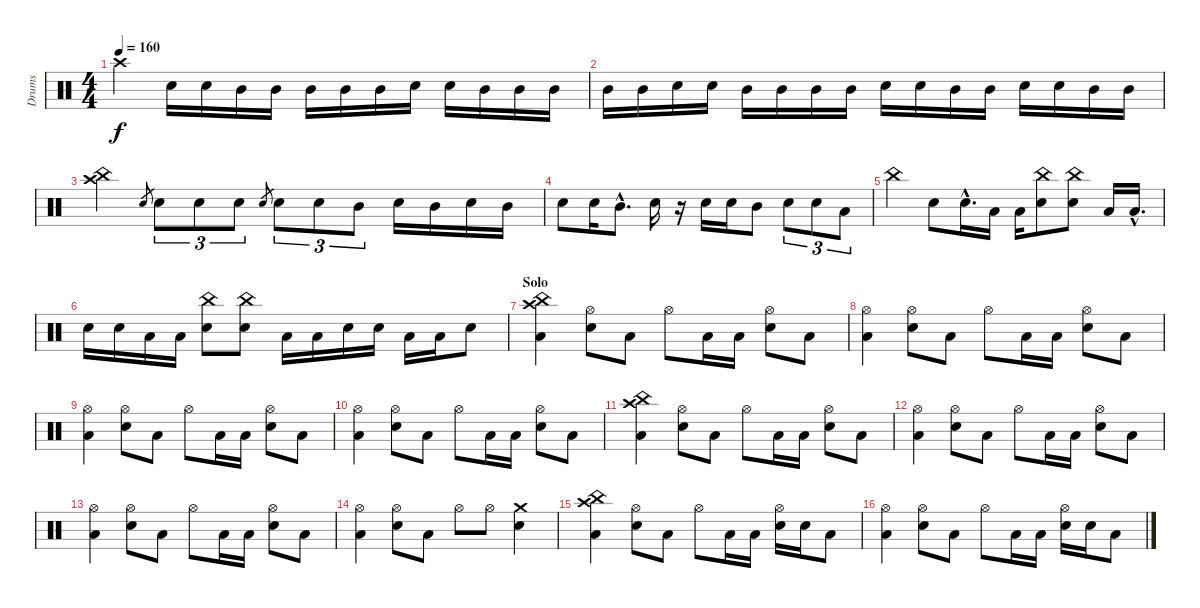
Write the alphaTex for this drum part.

\track ("Drums" "Drums") {instrument percussion}
\staff {score}
\articulation defaults
\ts (4 4)
\tempo 160
\clef neutral
\ks aminor "Crash high (hit)".4{dy f} "Electric Snare (hit)".16 "Electric Snare (hit)".16 "Mid Tom (hit)".16 "Mid Tom (hit)".16 "Mid Tom (hit)".16 "Mid Tom (hit)".16 "Mid Tom (hit)".16 "Electric Snare (hit)".16 "Electric Snare (hit)".16 "Mid Tom (hit)".16 "Mid Tom (hit)".16 "Mid Tom (hit)".16
|
"Mid Tom (hit)".16 "Mid Tom (hit)".16 "Electric Snare (hit)".16 "Electric Snare (hit)".16 "Mid Tom (hit)".16 "Mid Tom (hit)".16 "Mid Tom (hit)".16 "Mid Tom (hit)".16 "Electric Snare (hit)".16 "Electric Snare (hit)".16 "Mid Tom (hit)".16 "Mid Tom (hit)".16 "Electric Snare (hit)".16 "Electric Snare (hit)".16 "Mid Tom (hit)".16 "Mid Tom (hit)".16 |
("Crash high (hit)" "China (hit)").4 "Electric Snare (hit)".8{gr} "Electric Snare (hit)".8{tu (3 2)} "Electric Snare (hit)".8{tu (3 2)} "Electric Snare (hit)".8{tu (3 2)} "Electric Snare (hit)".8{gr} "Electric Snare (hit)".8{tu (3 2)} "Electric Snare (hit)".8{tu (3 2)} "Mid Tom (hit)".8{tu (3 2)} "Electric Snare (hit)".16 "Mid Tom (hit)".16 "Electric Snare (hit)".16 "Mid Tom (hit)".16 |
"Electric Snare (hit)".8 "Electric Snare (hit)".16 "Mid Tom (hit)"{hac}.8{d} "Electric Snare (hit)".16 r.16 "Electric Snare (hit)".16 "Electric Snare (hit)".16 "Mid Tom (hit)".8 "Electric Snare (hit)".8{tu (3 2)} "Electric Snare (hit)".8{tu (3 2)} "Low Floor Tom (hit)".8{tu (3 2)} |
"China (hit)".4 "Electric Snare (hit)".8 "Electric Snare (hit)"{hac}.16{d} "Low Floor Tom (hit)".16 "Low Floor Tom (hit)".16 ("China (hit)" "Electric Snare (hit)").8 ("China (hit)" "Electric Snare (hit)").8 "Low Floor Tom (hit)".16 "Low Floor Tom (hit)"{hac}.16{d} |
"Electric Snare (hit)".16 "Electric Snare (hit)".16 "Low Floor Tom (hit)".16 "Low Floor Tom (hit)".16 ("China (hit)" "Electric Snare (hit)").8 ("China (hit)" "Electric Snare (hit)").8 "Low Floor Tom (hit)".16 "Low Floor Tom (hit)".16 "Electric Snare (hit)".16 "Electric Snare (hit)".16 "Low Floor Tom (hit)".16 "Low Floor Tom (hit)".16 "Electric Snare (hit)".8 |
\section ("" "Solo")
("Crash high (hit)" "China (hit)" "Low Floor Tom (hit)").4 ("Hi-Hat (open)" "Electric Snare (hit)").8 "Low Floor Tom (hit)".8 "Hi-Hat (open)".8 "Low Floor Tom (hit)".16 "Low Floor Tom (hit)".16 ("Hi-Hat (open)" "Electric Snare (hit)").8 "Low Floor Tom (hit)".8 |
("Hi-Hat (open)" "Low Floor Tom (hit)").4 ("Hi-Hat (open)" "Electric Snare (hit)").8 "Low Floor Tom (hit)".8 "Hi-Hat (open)".8 "Low Floor Tom (hit)".16 "Low Floor Tom (hit)".16 ("Hi-Hat (open)" "Electric Snare (hit)").8 "Low Floor Tom (hit)".8 |
("Hi-Hat (open)" "Low Floor Tom (hit)").4 ("Hi-Hat (open)" "Electric Snare (hit)").8 "Low Floor Tom (hit)".8 "Hi-Hat (open)".8 "Low Floor Tom (hit)".16 "Low Floor Tom (hit)".16 ("Hi-Hat (open)" "Electric Snare (hit)").8 "Low Floor Tom (hit)".8 |
("Hi-Hat (open)" "Low Floor Tom (hit)").4 ("Hi-Hat (open)" "Electric Snare (hit)").8 "Low Floor Tom (hit)".8 "Hi-Hat (open)".8 "Low Floor Tom (hit)".16 "Low Floor Tom (hit)".16 ("Hi-Hat (open)" "Electric Snare (hit)").8 "Low Floor Tom (hit)".8 |
("Crash high (hit)" "China (hit)" "Low Floor Tom (hit)").4 ("Hi-Hat (open)" "Electric Snare (hit)").8 "Low Floor Tom (hit)".8 "Hi-Hat (open)".8 "Low Floor Tom (hit)".16 "Low Floor Tom (hit)".16 ("Hi-Hat (open)" "Electric Snare (hit)").8 "Low Floor Tom (hit)".8 |
("Hi-Hat (open)" "Low Floor Tom (hit)").4 ("Hi-Hat (open)" "Electric Snare (hit)").8 "Low Floor Tom (hit)".8 "Hi-Hat (open)".8 "Low Floor Tom (hit)".16 "Low Floor Tom (hit)".16 ("Hi-Hat (open)" "Electric Snare (hit)").8 "Low Floor Tom (hit)".8 |
("Hi-Hat (open)" "Low Floor Tom (hit)").4 ("Hi-Hat (open)" "Electric Snare (hit)").8 "Low Floor Tom (hit)".8 "Hi-Hat (open)".8 "Low Floor Tom (hit)".16 "Low Floor Tom (hit)".16 ("Hi-Hat (open)" "Electric Snare (hit)").8 "Low Floor Tom (hit)".8 |
("Hi-Hat (open)" "Low Floor Tom (hit)").4 ("Hi-Hat (open)" "Electric Snare (hit)").8 "Low Floor Tom (hit)".8 "Hi-Hat (open)".8 "Hi-Hat (open)".8 ("Crash medium (hit)" "Electric Snare (hit)").4 |
("Crash high (hit)" "China (hit)" "Low Floor Tom (hit)").4 ("Hi-Hat (open)" "Electric Snare (hit)").8 "Low Floor Tom (hit)".8 "Hi-Hat (open)".8 "Low Floor Tom (hit)".16 "Low Floor Tom (hit)".16 ("Hi-Hat (open)" "Electric Snare (hit)").16 "Electric Snare (hit)".16 "Low Floor Tom (hit)".8 |
("Hi-Hat (open)" "Low Floor Tom (hit)").4 ("Hi-Hat (open)" "Electric Snare (hit)").8 "Low Floor Tom (hit)".8 "Hi-Hat (open)".8 "Low Floor Tom (hit)".16 "Low Floor Tom (hit)".16 ("Hi-Hat (open)" "Electric Snare (hit)").16 "Electric Snare (hit)".16 "Low Floor Tom (hit)".8
